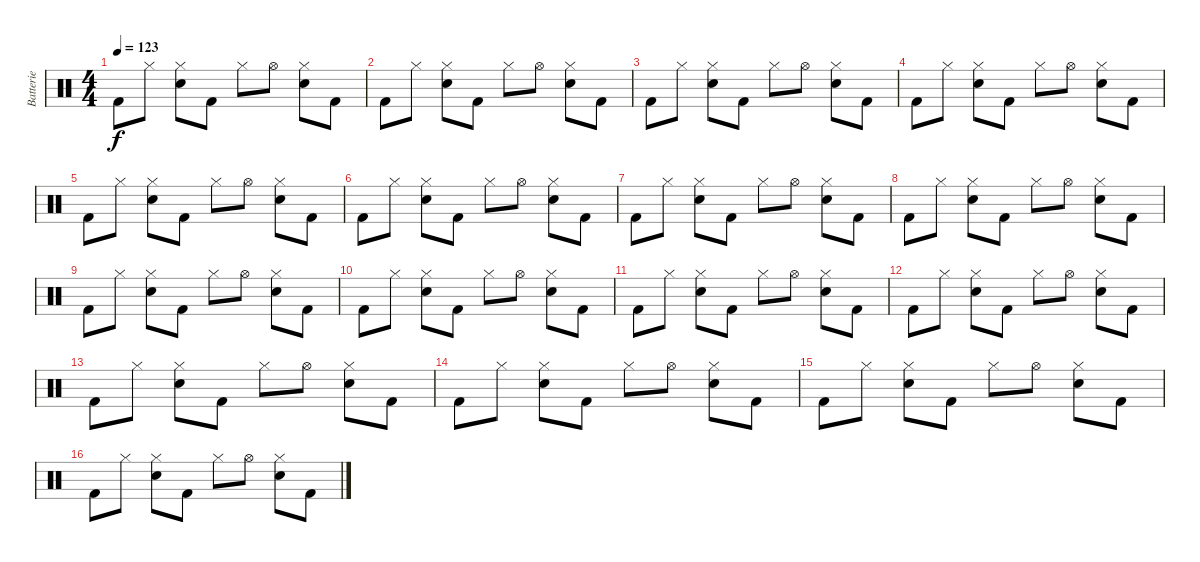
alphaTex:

\track ("Batterie" "Batterie") {instrument percussion}
\staff {score}
\articulation defaults
\ts (4 4)
\tempo 123
\clef neutral
\ks c "Kick (hit) 2".8{dy f} "Hi-Hat (closed)".8
("Electric Snare (hit)" "Hi-Hat (closed)").8 "Kick (hit) 2".8 "Hi-Hat (closed)".8 "Hi-Hat (open)".8 ("Snare (hit) 2" "Hi-Hat (closed)").8 "Kick (hit) 2".8 |
"Kick (hit) 2".8 "Hi-Hat (closed)".8 ("Snare (hit) 2" "Hi-Hat (closed)").8 "Kick (hit) 2".8 "Hi-Hat (closed)".8 "Hi-Hat (open)".8 ("Electric Snare (hit)" "Hi-Hat (closed)").8 "Kick (hit) 2".8 |
"Kick (hit) 2".8 "Hi-Hat (closed)".8 ("Electric Snare (hit)" "Hi-Hat (closed)").8 "Kick (hit) 2".8 "Hi-Hat (closed)".8 "Hi-Hat (open)".8 ("Snare (hit) 2" "Hi-Hat (closed)").8 "Kick (hit) 2".8 |
"Kick (hit) 2".8 "Hi-Hat (closed)".8 ("Snare (hit) 2" "Hi-Hat (closed)").8 "Kick (hit) 2".8 "Hi-Hat (closed)".8 "Hi-Hat (open)".8 ("Electric Snare (hit)" "Hi-Hat (closed)").8 "Kick (hit) 2".8 |
"Kick (hit) 2".8 "Hi-Hat (closed)".8 ("Electric Snare (hit)" "Hi-Hat (closed)").8 "Kick (hit) 2".8 "Hi-Hat (closed)".8 "Hi-Hat (open)".8 ("Snare (hit) 2" "Hi-Hat (closed)").8 "Kick (hit) 2".8 |
"Kick (hit) 2".8 "Hi-Hat (closed)".8 ("Snare (hit) 2" "Hi-Hat (closed)").8 "Kick (hit) 2".8 "Hi-Hat (closed)".8 "Hi-Hat (open)".8 ("Electric Snare (hit)" "Hi-Hat (closed)").8 "Kick (hit) 2".8 |
"Kick (hit) 2".8 "Hi-Hat (closed)".8 ("Electric Snare (hit)" "Hi-Hat (closed)").8 "Kick (hit) 2".8 "Hi-Hat (closed)".8 "Hi-Hat (open)".8 ("Snare (hit) 2" "Hi-Hat (closed)").8 "Kick (hit) 2".8 |
"Kick (hit) 2".8 "Hi-Hat (closed)".8 ("Snare (hit) 2" "Hi-Hat (closed)").8 "Kick (hit) 2".8 "Hi-Hat (closed)".8 "Hi-Hat (open)".8 ("Electric Snare (hit)" "Hi-Hat (closed)").8 "Kick (hit) 2".8 |
"Kick (hit) 2".8 "Hi-Hat (closed)".8 ("Electric Snare (hit)" "Hi-Hat (closed)").8 "Kick (hit) 2".8 "Hi-Hat (closed)".8 "Hi-Hat (open)".8 ("Snare (hit) 2" "Hi-Hat (closed)").8 "Kick (hit) 2".8 |
"Kick (hit) 2".8 "Hi-Hat (closed)".8 ("Snare (hit) 2" "Hi-Hat (closed)").8 "Kick (hit) 2".8 "Hi-Hat (closed)".8 "Hi-Hat (open)".8 ("Electric Snare (hit)" "Hi-Hat (closed)").8 "Kick (hit) 2".8 |
"Kick (hit) 2".8 "Hi-Hat (closed)".8 ("Electric Snare (hit)" "Hi-Hat (closed)").8 "Kick (hit) 2".8 "Hi-Hat (closed)".8 "Hi-Hat (open)".8 ("Snare (hit) 2" "Hi-Hat (closed)").8 "Kick (hit) 2".8 |
"Kick (hit) 2".8 "Hi-Hat (closed)".8 ("Snare (hit) 2" "Hi-Hat (closed)").8 "Kick (hit) 2".8 "Hi-Hat (closed)".8 "Hi-Hat (open)".8 ("Electric Snare (hit)" "Hi-Hat (closed)").8 "Kick (hit) 2".8 |
"Kick (hit) 2".8 "Hi-Hat (closed)".8 ("Electric Snare (hit)" "Hi-Hat (closed)").8 "Kick (hit) 2".8 "Hi-Hat (closed)".8 "Hi-Hat (open)".8 ("Snare (hit) 2" "Hi-Hat (closed)").8 "Kick (hit) 2".8 |
"Kick (hit) 2".8 "Hi-Hat (closed)".8 ("Snare (hit) 2" "Hi-Hat (closed)").8 "Kick (hit) 2".8 "Hi-Hat (closed)".8 "Hi-Hat (open)".8 ("Electric Snare (hit)" "Hi-Hat (closed)").8 "Kick (hit) 2".8 |
"Kick (hit) 2".8 "Hi-Hat (closed)".8 ("Electric Snare (hit)" "Hi-Hat (closed)").8 "Kick (hit) 2".8 "Hi-Hat (closed)".8 "Hi-Hat (open)".8 ("Snare (hit) 2" "Hi-Hat (closed)").8 "Kick (hit) 2".8 |
"Kick (hit) 2".8 "Hi-Hat (closed)".8 ("Snare (hit) 2" "Hi-Hat (closed)").8 "Kick (hit) 2".8 "Hi-Hat (closed)".8 "Hi-Hat (open)".8 ("Electric Snare (hit)" "Hi-Hat (closed)").8 "Kick (hit) 2".8
